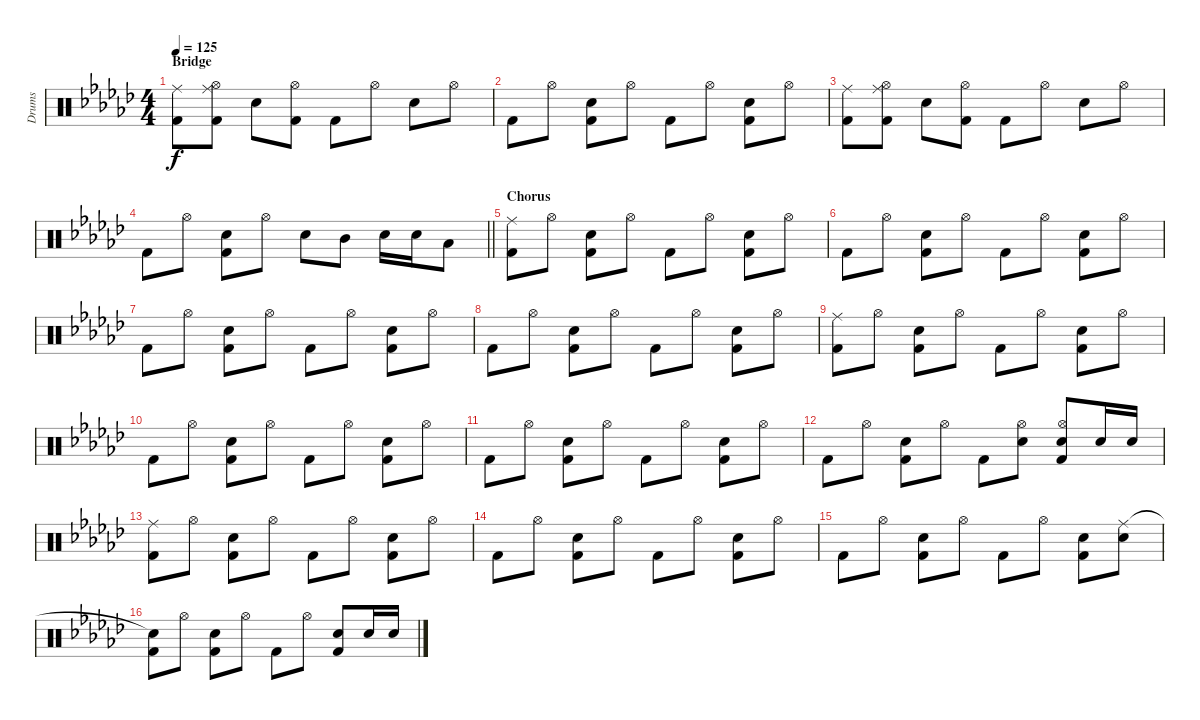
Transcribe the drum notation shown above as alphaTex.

\track ("Drums" "Drums") {instrument percussion}
\staff {score}
\articulation defaults
\ts (4 4)
\section ("" "Bridge")
\tempo 125
\clef neutral
\ks gb
("Ride (middle)" "Kick (hit) 2").8{dy f} ("Ride (middle)" "Hi-Hat (open)" "Kick (hit) 2").8 "Snare (hit) 2".8 ("Hi-Hat (open)" "Kick (hit) 2").8 "Kick (hit) 2".8 "Hi-Hat (open)".8 "Snare (hit) 2".8 "Hi-Hat (open)".8 |
"Kick (hit) 2".8 "Hi-Hat (open)".8 ("Snare (hit) 2" "Kick (hit) 2").8 "Hi-Hat (open)".8 "Kick (hit) 2".8 "Hi-Hat (open)".8 ("Snare (hit) 2" "Kick (hit) 2").8 "Hi-Hat (open)".8 |
("Ride (middle)" "Kick (hit) 2").8 ("Ride (middle)" "Hi-Hat (open)" "Kick (hit) 2").8 "Snare (hit) 2".8 ("Hi-Hat (open)" "Kick (hit) 2").8 "Kick (hit) 2".8 "Hi-Hat (open)".8 "Snare (hit) 2".8 "Hi-Hat (open)".8 |
\barLineRight lightlight "Kick (hit) 2".8 "Hi-Hat (open)".8
("Snare (hit) 2" "Kick (hit) 2").8 "Hi-Hat (open)".8 "Snare (hit) 2".8 "Mid Tom (hit)".8 "Snare (hit) 2".16 "Snare (hit) 2".16 "Low Tom (hit)".8 |
\section ("" "Chorus")
("Ride (middle)" "Kick (hit) 2").8 "Hi-Hat (open)".8 ("Snare (hit) 2" "Kick (hit) 2").8 "Hi-Hat (open)".8 "Kick (hit) 2".8 "Hi-Hat (open)".8 ("Snare (hit) 2" "Kick (hit) 2").8 "Hi-Hat (open)".8 |
"Kick (hit) 2".8 "Hi-Hat (open)".8 ("Snare (hit) 2" "Kick (hit) 2").8 "Hi-Hat (open)".8 "Kick (hit) 2".8 "Hi-Hat (open)".8 ("Snare (hit) 2" "Kick (hit) 2").8 "Hi-Hat (open)".8 |
"Kick (hit) 2".8 "Hi-Hat (open)".8 ("Snare (hit) 2" "Kick (hit) 2").8 "Hi-Hat (open)".8 "Kick (hit) 2".8 "Hi-Hat (open)".8 ("Snare (hit) 2" "Kick (hit) 2").8 "Hi-Hat (open)".8 |
"Kick (hit) 2".8 "Hi-Hat (open)".8 ("Snare (hit) 2" "Kick (hit) 2").8 "Hi-Hat (open)".8 "Kick (hit) 2".8 "Hi-Hat (open)".8 ("Snare (hit) 2" "Kick (hit) 2").8 "Hi-Hat (open)".8 |
("Ride (middle)" "Kick (hit) 2").8 "Hi-Hat (open)".8 ("Snare (hit) 2" "Kick (hit) 2").8 "Hi-Hat (open)".8 "Kick (hit) 2".8 "Hi-Hat (open)".8 ("Snare (hit) 2" "Kick (hit) 2").8 "Hi-Hat (open)".8 |
"Kick (hit) 2".8 "Hi-Hat (open)".8 ("Snare (hit) 2" "Kick (hit) 2").8 "Hi-Hat (open)".8 "Kick (hit) 2".8 "Hi-Hat (open)".8 ("Snare (hit) 2" "Kick (hit) 2").8 "Hi-Hat (open)".8 |
"Kick (hit) 2".8 "Hi-Hat (open)".8 ("Snare (hit) 2" "Kick (hit) 2").8 "Hi-Hat (open)".8 "Kick (hit) 2".8 "Hi-Hat (open)".8 ("Snare (hit) 2" "Kick (hit) 2").8 "Hi-Hat (open)".8 |
"Kick (hit) 2".8 "Hi-Hat (open)".8 ("Snare (hit) 2" "Kick (hit) 2").8 "Hi-Hat (open)".8 "Kick (hit) 2".8 ("Hi-Hat (open)" "Snare (hit) 2").8 ("Hi-Hat (open)" "Snare (hit) 2" "Kick (hit) 2").8 "Snare (hit) 2".16 "Snare (hit) 2".16 |
("Ride (middle)" "Kick (hit) 2").8 "Hi-Hat (open)".8 ("Snare (hit) 2" "Kick (hit) 2").8 "Hi-Hat (open)".8 "Kick (hit) 2".8 "Hi-Hat (open)".8 ("Snare (hit) 2" "Kick (hit) 2").8 "Hi-Hat (open)".8 |
"Kick (hit) 2".8 "Hi-Hat (open)".8 ("Snare (hit) 2" "Kick (hit) 2").8 "Hi-Hat (open)".8 "Kick (hit) 2".8 "Hi-Hat (open)".8 ("Snare (hit) 2" "Kick (hit) 2").8 "Hi-Hat (open)".8 |
"Kick (hit) 2".8 "Hi-Hat (open)".8 ("Snare (hit) 2" "Kick (hit) 2").8 "Hi-Hat (open)".8 "Kick (hit) 2".8 "Hi-Hat (open)".8 ("Snare (hit) 2" "Kick (hit) 2").8 ("Ride (middle)" "Snare (hit) 2").8 |
("Snare (hit)"{t} "Kick (hit) 2").8 "Hi-Hat (open)".8 ("Snare (hit) 2" "Kick (hit) 2").8 "Hi-Hat (open)".8 "Kick (hit) 2".8 "Hi-Hat (open)".8 ("Snare (hit) 2" "Kick (hit) 2").8 "Snare (hit) 2".16 "Snare (hit) 2".16
